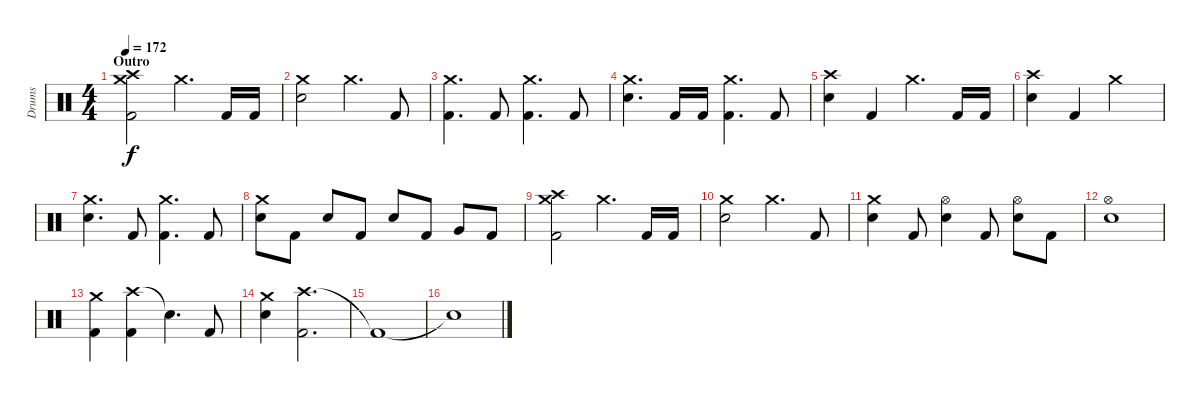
\track ("Drums" "Drums") {instrument percussion}
\staff {score}
\articulation defaults
\ts (4 4)
\section ("" "Outro")
\tempo 172
\clef neutral
\ks c
("Crash medium (hit)" "Crash high (hit)" "Kick (hit) 2").2{dy f} "Crash medium (hit)".4{d} "Kick (hit) 2".16 "Kick (hit) 2".16 |
("Crash medium (hit)" "Electric Snare (hit)").2 "Crash medium (hit)".4{d} "Kick (hit) 2".8 |
("Crash medium (hit)" "Kick (hit) 2").4{d} "Kick (hit) 2".8 ("Crash medium (hit)" "Kick (hit) 2").4{d} "Kick (hit) 2".8 |
("Crash medium (hit)" "Electric Snare (hit)").4{d} "Kick (hit) 2".16 "Kick (hit) 2".16 ("Crash medium (hit)" "Kick (hit) 2").4{d} "Kick (hit) 2".8 |
("Crash high (hit)" "Electric Snare (hit)").4 "Kick (hit) 2".4 "Crash medium (hit)".4{d} "Kick (hit) 2".16 "Kick (hit) 2".16 |
("Crash high (hit)" "Electric Snare (hit)").4 "Kick (hit) 2".4 "Crash medium (hit)".2 |
("Crash medium (hit)" "Electric Snare (hit)").4{d} "Kick (hit) 2".8 ("Crash medium (hit)" "Kick (hit) 2").4{d} "Kick (hit) 2".8 |
("Crash medium (hit)" "Electric Snare (hit)").8 "Kick (hit) 2".8 "Electric Snare (hit)".8 "Kick (hit) 2".8 "Electric Snare (hit)".8 "Kick (hit) 2".8 "Very Low Tom (hit)".8 "Kick (hit) 2".8 |
("Crash medium (hit)" "Crash high (hit)" "Kick (hit) 2").2 "Crash medium (hit)".4{d} "Kick (hit) 2".16 "Kick (hit) 2".16 |
("Crash medium (hit)" "Electric Snare (hit)").2 "Crash medium (hit)".4{d} "Kick (hit) 2".8 |
("Crash medium (hit)" "Electric Snare (hit)").4 "Kick (hit) 2".8 ("Hi-Hat (open)" "Electric Snare (hit)").4 "Kick (hit) 2".8 ("Hi-Hat (open)" "Electric Snare (hit)").8 "Kick (hit) 2".8 |
("Hi-Hat (open)" "Electric Snare (hit)").1 |
("Crash medium (hit)" "Kick (hit) 2").4 ("Crash high (hit)" "Kick (hit) 2").4 "Snare (hit)"{t}.4{d} "Kick (hit) 2".8 |
("Crash medium (hit)" "Electric Snare (hit)").4 ("Crash high (hit)" "Kick (hit) 2").2{d volume 0} |
"Kick (hit) 2"{t}.1 |
"Snare (hit)"{t}.1
